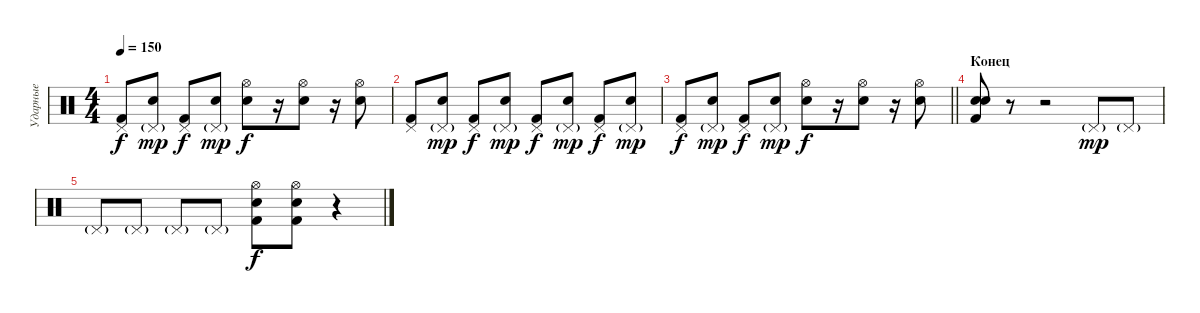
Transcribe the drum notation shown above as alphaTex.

\track ("Ударные" "Ударные") {instrument percussion}
\staff {score}
\articulation defaults
\ts (4 4)
\tempo 150
\clef neutral
\ks c
("Kick (hit) 2" "Pedal Hi-Hat (hit)").8{dy f} ("Electric Snare (hit)" "Pedal Hi-Hat (hit)"{g}).8{dy mp} ("Kick (hit) 2" "Pedal Hi-Hat (hit)").8{dy f} ("Electric Snare (hit)" "Pedal Hi-Hat (hit)"{g}).8{dy mp} ("Hi-Hat (open)" "Electric Snare (hit)").8{dy f} r.16 ("Hi-Hat (open)" "Electric Snare (hit)").8 r.16 ("Hi-Hat (open)" "Electric Snare (hit)").8 |
("Kick (hit) 2" "Pedal Hi-Hat (hit)").8 ("Electric Snare (hit)" "Pedal Hi-Hat (hit)"{g}).8{dy mp} ("Kick (hit) 2" "Pedal Hi-Hat (hit)").8{dy f} ("Electric Snare (hit)" "Pedal Hi-Hat (hit)"{g}).8{dy mp} ("Kick (hit) 2" "Pedal Hi-Hat (hit)").8{dy f} ("Electric Snare (hit)" "Pedal Hi-Hat (hit)"{g}).8{dy mp} ("Kick (hit) 2" "Pedal Hi-Hat (hit)").8{dy f} ("Electric Snare (hit)" "Pedal Hi-Hat (hit)"{g}).8{dy mp} |
\barLineRight lightlight
("Kick (hit) 2" "Pedal Hi-Hat (hit)").8{dy f} ("Electric Snare (hit)" "Pedal Hi-Hat (hit)"{g}).8{dy mp} ("Kick (hit) 2" "Pedal Hi-Hat (hit)").8{dy f} ("Electric Snare (hit)" "Pedal Hi-Hat (hit)"{g}).8{dy mp} ("Hi-Hat (open)" "Electric Snare (hit)").8{dy f} r.16 ("Hi-Hat (open)" "Electric Snare (hit)").8 r.16 ("Hi-Hat (open)" "Electric Snare (hit)").8 |
\section ("" "Конец")
("Snare (hit) 2" "Kick (hit) 2" "Electric Snare (hit)").8 r.8 r.2 "Pedal Hi-Hat (hit)"{g}.8{dy mp} "Pedal Hi-Hat (hit)"{g}.8 |
"Pedal Hi-Hat (hit)"{g}.8 "Pedal Hi-Hat (hit)"{g}.8 "Pedal Hi-Hat (hit)"{g}.8 "Pedal Hi-Hat (hit)"{g}.8 ("Hi-Hat (open)" "Kick (hit) 2" "Electric Snare (hit)").8{dy f} ("Hi-Hat (open)" "Kick (hit) 2" "Electric Snare (hit)").8 r.4
